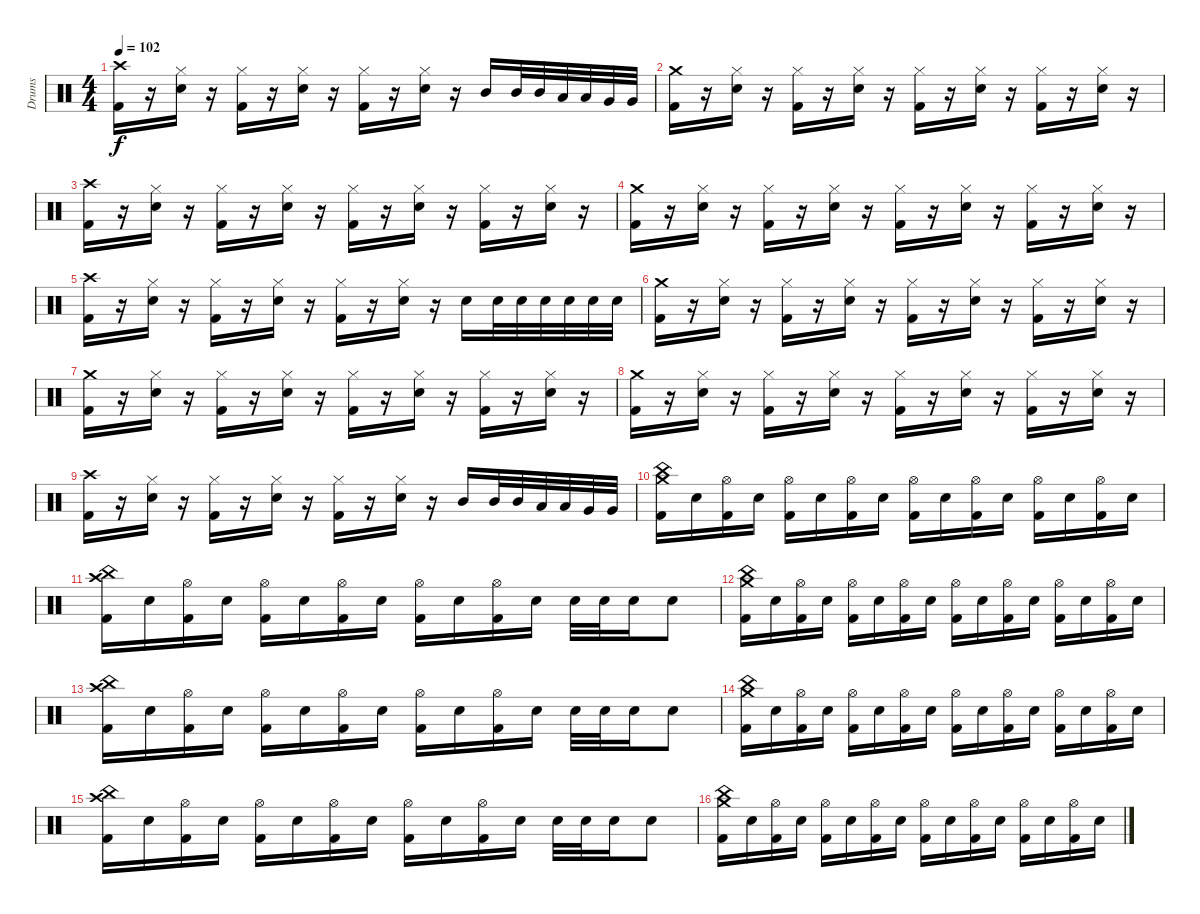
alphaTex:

\track ("Drums" "Drums") {instrument percussion}
\staff {score}
\articulation defaults
\ts (4 4)
\tempo 102
\clef neutral
\ks c
("Crash high (hit)" "Kick (hit) 2").16{dy f} r.16 ("Hi-Hat (closed)" "Electric Snare (hit)").16 r.16 ("Hi-Hat (closed)" "Kick (hit) 2").16 r.16 ("Hi-Hat (closed)" "Electric Snare (hit)").16 r.16 ("Hi-Hat (closed)" "Kick (hit) 2").16 r.16 ("Hi-Hat (closed)" "Electric Snare (hit)").16 r.16 "Mid Tom (hit)".16 "Mid Tom (hit)".32 "Mid Tom (hit)".32 "Low Tom (hit)".32 "Low Tom (hit)".32 "Very Low Tom (hit)".32 "Very Low Tom (hit)".32 |
("Crash medium (hit)" "Kick (hit) 2").16 r.16 ("Hi-Hat (closed)" "Electric Snare (hit)").16 r.16 ("Hi-Hat (closed)" "Kick (hit) 2").16 r.16 ("Hi-Hat (closed)" "Electric Snare (hit)").16 r.16 ("Hi-Hat (closed)" "Kick (hit) 2").16 r.16 ("Hi-Hat (closed)" "Electric Snare (hit)").16 r.16 ("Hi-Hat (closed)" "Kick (hit) 2").16 r.16 ("Hi-Hat (closed)" "Electric Snare (hit)").16 r.16 |
("Crash high (hit)" "Kick (hit) 2").16 r.16 ("Hi-Hat (closed)" "Electric Snare (hit)").16 r.16 ("Hi-Hat (closed)" "Kick (hit) 2").16 r.16 ("Hi-Hat (closed)" "Electric Snare (hit)").16 r.16 ("Hi-Hat (closed)" "Kick (hit) 2").16 r.16 ("Hi-Hat (closed)" "Electric Snare (hit)").16 r.16 ("Hi-Hat (closed)" "Kick (hit) 2").16 r.16 ("Hi-Hat (closed)" "Electric Snare (hit)").16 r.16 |
("Crash medium (hit)" "Kick (hit) 2").16 r.16 ("Hi-Hat (closed)" "Electric Snare (hit)").16 r.16 ("Hi-Hat (closed)" "Kick (hit) 2").16 r.16 ("Hi-Hat (closed)" "Electric Snare (hit)").16 r.16 ("Hi-Hat (closed)" "Kick (hit) 2").16 r.16 ("Hi-Hat (closed)" "Electric Snare (hit)").16 r.16 ("Hi-Hat (closed)" "Kick (hit) 2").16 r.16 ("Hi-Hat (closed)" "Electric Snare (hit)").16 r.16 |
("Crash high (hit)" "Kick (hit) 2").16 r.16 ("Hi-Hat (closed)" "Electric Snare (hit)").16 r.16 ("Hi-Hat (closed)" "Kick (hit) 2").16 r.16 ("Hi-Hat (closed)" "Electric Snare (hit)").16 r.16 ("Hi-Hat (closed)" "Kick (hit) 2").16 r.16 ("Hi-Hat (closed)" "Electric Snare (hit)").16 r.16 "Electric Snare (hit)".16 "Electric Snare (hit)".32 "Electric Snare (hit)".32 "Electric Snare (hit)".32 "Electric Snare (hit)".32 "Electric Snare (hit)".32 "Electric Snare (hit)".32 |
("Crash medium (hit)" "Kick (hit) 2").16 r.16 ("Hi-Hat (closed)" "Electric Snare (hit)").16 r.16 ("Hi-Hat (closed)" "Kick (hit) 2").16 r.16 ("Hi-Hat (closed)" "Electric Snare (hit)").16 r.16 ("Hi-Hat (closed)" "Kick (hit) 2").16 r.16 ("Hi-Hat (closed)" "Electric Snare (hit)").16 r.16 ("Hi-Hat (closed)" "Kick (hit) 2").16 r.16 ("Hi-Hat (closed)" "Electric Snare (hit)").16 r.16 |
("Crash medium (hit)" "Kick (hit) 2").16 r.16 ("Hi-Hat (closed)" "Electric Snare (hit)").16 r.16 ("Hi-Hat (closed)" "Kick (hit) 2").16 r.16 ("Hi-Hat (closed)" "Electric Snare (hit)").16 r.16 ("Hi-Hat (closed)" "Kick (hit) 2").16 r.16 ("Hi-Hat (closed)" "Electric Snare (hit)").16 r.16 ("Hi-Hat (closed)" "Kick (hit) 2").16 r.16 ("Hi-Hat (closed)" "Electric Snare (hit)").16 r.16 |
("Crash medium (hit)" "Kick (hit) 2").16 r.16 ("Hi-Hat (closed)" "Electric Snare (hit)").16 r.16 ("Hi-Hat (closed)" "Kick (hit) 2").16 r.16 ("Hi-Hat (closed)" "Electric Snare (hit)").16 r.16 ("Hi-Hat (closed)" "Kick (hit) 2").16 r.16 ("Hi-Hat (closed)" "Electric Snare (hit)").16 r.16 ("Hi-Hat (closed)" "Kick (hit) 2").16 r.16 ("Hi-Hat (closed)" "Electric Snare (hit)").16 r.16 |
("Crash high (hit)" "Kick (hit) 2").16 r.16 ("Hi-Hat (closed)" "Electric Snare (hit)").16 r.16 ("Hi-Hat (closed)" "Kick (hit) 2").16 r.16 ("Hi-Hat (closed)" "Electric Snare (hit)").16 r.16 ("Hi-Hat (closed)" "Kick (hit) 2").16 r.16 ("Hi-Hat (closed)" "Electric Snare (hit)").16 r.16 "Mid Tom (hit)".16 "Mid Tom (hit)".32 "Mid Tom (hit)".32 "Low Tom (hit)".32 "Low Tom (hit)".32 "Very Low Tom (hit)".32 "Very Low Tom (hit)".32 |
\section ("" "")
("China (hit)" "Crash medium (hit)" "Kick (hit) 2").16 "Electric Snare (hit)".16 ("Hi-Hat (open)" "Kick (hit) 2").16 "Electric Snare (hit)".16 ("Hi-Hat (open)" "Kick (hit) 2").16 "Electric Snare (hit)".16 ("Hi-Hat (open)" "Kick (hit) 2").16 "Electric Snare (hit)".16 ("Hi-Hat (open)" "Kick (hit) 2").16 "Electric Snare (hit)".16 ("Hi-Hat (open)" "Kick (hit) 2").16 "Electric Snare (hit)".16 ("Hi-Hat (open)" "Kick (hit) 2").16 "Electric Snare (hit)".16 ("Hi-Hat (open)" "Kick (hit) 2").16 "Electric Snare (hit)".16 |
("China (hit)" "Crash high (hit)" "Kick (hit) 2").16 "Electric Snare (hit)".16 ("Hi-Hat (open)" "Kick (hit) 2").16 "Electric Snare (hit)".16 ("Hi-Hat (open)" "Kick (hit) 2").16 "Electric Snare (hit)".16 ("Hi-Hat (open)" "Kick (hit) 2").16 "Electric Snare (hit)".16 ("Hi-Hat (open)" "Kick (hit) 2").16 "Electric Snare (hit)".16 ("Hi-Hat (open)" "Kick (hit) 2").16 "Electric Snare (hit)".16 "Electric Snare (hit)".32 "Electric Snare (hit)".32 "Electric Snare (hit)".16 "Electric Snare (hit)".8 |
("China (hit)" "Crash medium (hit)" "Kick (hit) 2").16 "Electric Snare (hit)".16 ("Hi-Hat (open)" "Kick (hit) 2").16 "Electric Snare (hit)".16 ("Hi-Hat (open)" "Kick (hit) 2").16 "Electric Snare (hit)".16 ("Hi-Hat (open)" "Kick (hit) 2").16 "Electric Snare (hit)".16 ("Hi-Hat (open)" "Kick (hit) 2").16 "Electric Snare (hit)".16 ("Hi-Hat (open)" "Kick (hit) 2").16 "Electric Snare (hit)".16 ("Hi-Hat (open)" "Kick (hit) 2").16 "Electric Snare (hit)".16 ("Hi-Hat (open)" "Kick (hit) 2").16 "Electric Snare (hit)".16 |
("China (hit)" "Crash high (hit)" "Kick (hit) 2").16 "Electric Snare (hit)".16 ("Hi-Hat (open)" "Kick (hit) 2").16 "Electric Snare (hit)".16 ("Hi-Hat (open)" "Kick (hit) 2").16 "Electric Snare (hit)".16 ("Hi-Hat (open)" "Kick (hit) 2").16 "Electric Snare (hit)".16 ("Hi-Hat (open)" "Kick (hit) 2").16 "Electric Snare (hit)".16 ("Hi-Hat (open)" "Kick (hit) 2").16 "Electric Snare (hit)".16 "Electric Snare (hit)".32 "Electric Snare (hit)".32 "Electric Snare (hit)".16 "Electric Snare (hit)".8 |
("China (hit)" "Crash medium (hit)" "Kick (hit) 2").16 "Electric Snare (hit)".16 ("Hi-Hat (open)" "Kick (hit) 2").16 "Electric Snare (hit)".16 ("Hi-Hat (open)" "Kick (hit) 2").16 "Electric Snare (hit)".16 ("Hi-Hat (open)" "Kick (hit) 2").16 "Electric Snare (hit)".16 ("Hi-Hat (open)" "Kick (hit) 2").16 "Electric Snare (hit)".16 ("Hi-Hat (open)" "Kick (hit) 2").16 "Electric Snare (hit)".16 ("Hi-Hat (open)" "Kick (hit) 2").16 "Electric Snare (hit)".16 ("Hi-Hat (open)" "Kick (hit) 2").16 "Electric Snare (hit)".16 |
("China (hit)" "Crash high (hit)" "Kick (hit) 2").16 "Electric Snare (hit)".16 ("Hi-Hat (open)" "Kick (hit) 2").16 "Electric Snare (hit)".16 ("Hi-Hat (open)" "Kick (hit) 2").16 "Electric Snare (hit)".16 ("Hi-Hat (open)" "Kick (hit) 2").16 "Electric Snare (hit)".16 ("Hi-Hat (open)" "Kick (hit) 2").16 "Electric Snare (hit)".16 ("Hi-Hat (open)" "Kick (hit) 2").16 "Electric Snare (hit)".16 "Electric Snare (hit)".32 "Electric Snare (hit)".32 "Electric Snare (hit)".16 "Electric Snare (hit)".8 |
("China (hit)" "Crash medium (hit)" "Kick (hit) 2").16 "Electric Snare (hit)".16 ("Hi-Hat (open)" "Kick (hit) 2").16 "Electric Snare (hit)".16 ("Hi-Hat (open)" "Kick (hit) 2").16 "Electric Snare (hit)".16 ("Hi-Hat (open)" "Kick (hit) 2").16 "Electric Snare (hit)".16 ("Hi-Hat (open)" "Kick (hit) 2").16 "Electric Snare (hit)".16 ("Hi-Hat (open)" "Kick (hit) 2").16 "Electric Snare (hit)".16 ("Hi-Hat (open)" "Kick (hit) 2").16 "Electric Snare (hit)".16 ("Hi-Hat (open)" "Kick (hit) 2").16 "Electric Snare (hit)".16
